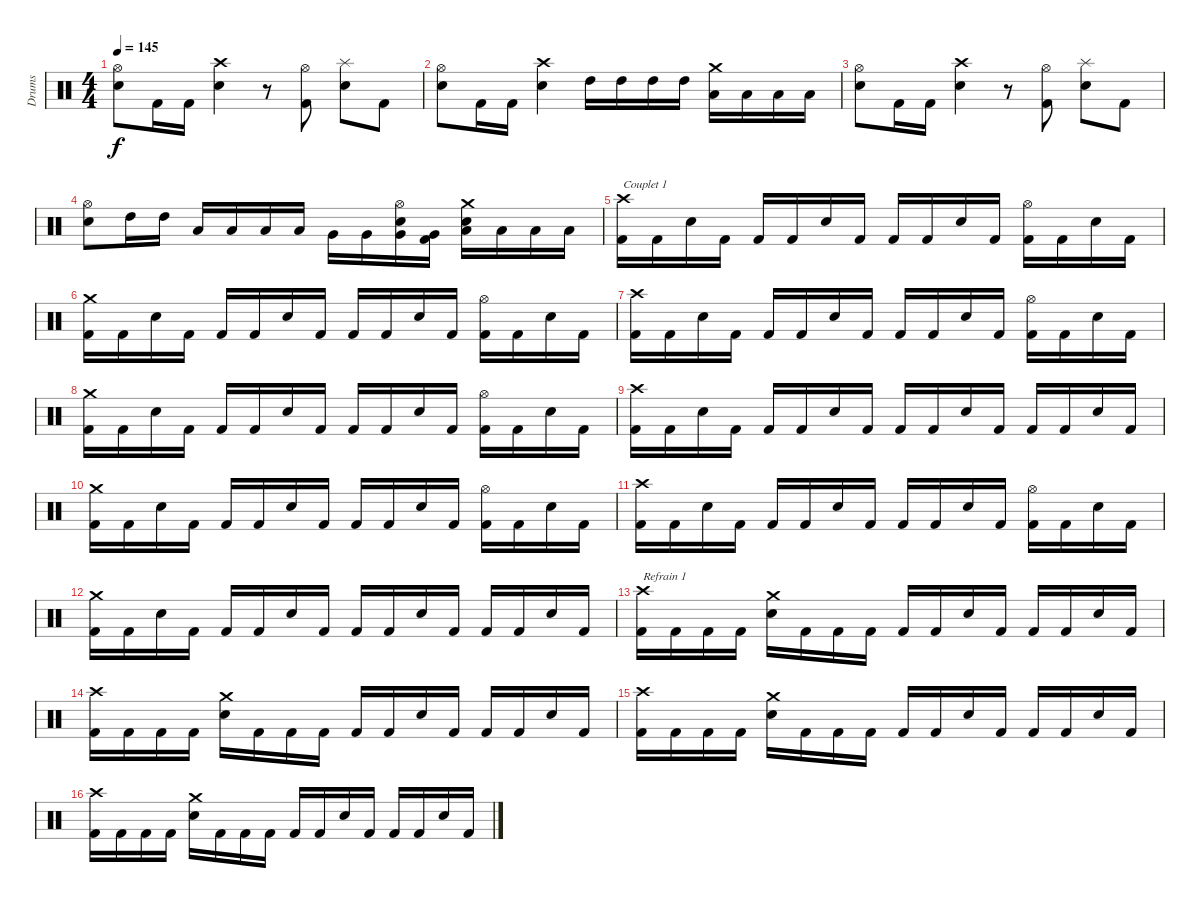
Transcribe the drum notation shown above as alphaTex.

\track ("Drums" "Drums") {instrument percussion}
\staff {score}
\articulation defaults
\ts (4 4)
\tempo 145
\clef neutral
\ks c
("Hi-Hat (open)" "Snare (hit) 2").8{dy f} "Kick (hit) 2".16 "Kick (hit) 2".16 ("Crash high (hit)" "Snare (hit) 2").4 r.8 ("Hi-Hat (open)" "Kick (hit) 2").8 ("Splash (hit)" "Snare (hit) 2").8 "Kick (hit) 2".8 |
("Hi-Hat (open)" "Snare (hit) 2").8 "Kick (hit) 2".16 "Kick (hit) 2".16 ("Crash high (hit)" "Snare (hit) 2").4 "High Tom (hit)".16 "High Tom (hit)".16 "High Tom (hit)".16 "High Tom (hit)".16 ("Low Tom (hit)" "Crash medium (hit)").16 "Low Tom (hit)".16 "Low Tom (hit)".16 "Low Tom (hit)".16 |
("Hi-Hat (open)" "Snare (hit) 2").8 "Kick (hit) 2".16 "Kick (hit) 2".16 ("Crash high (hit)" "Snare (hit) 2").4 r.8 ("Hi-Hat (open)" "Kick (hit) 2").8 ("Splash (hit)" "Snare (hit) 2").8 "Kick (hit) 2".8 |
("Hi-Hat (open)" "Snare (hit) 2").8 "High Tom (hit)".16 "High Tom (hit)".16 "Low Tom (hit)".16 "Low Tom (hit)".16 "Low Tom (hit)".16 "Low Tom (hit)".16 "Very Low Tom (hit)".16 "Very Low Tom (hit)".16 ("Very Low Tom (hit)" "Hi-Hat (open)" "Snare (hit) 2").16 ("Very Low Tom (hit)" "Kick (hit) 2").16 ("Low Floor Tom (hit)" "Crash medium (hit)" "Snare (hit) 2").16 "Low Floor Tom (hit)".16 "Low Floor Tom (hit)".16 "Low Floor Tom (hit)".16 |
("Crash high (hit)" "Kick (hit) 2").16{txt "Couplet 1"} "Kick (hit) 2".16 "Snare (hit) 2".16 "Kick (hit) 2".16 "Kick (hit) 2".16 "Kick (hit) 2".16 "Snare (hit) 2".16 "Kick (hit) 2".16 "Kick (hit) 2".16 "Kick (hit) 2".16 "Snare (hit) 2".16 "Kick (hit) 2".16 ("Hi-Hat (open)" "Kick (hit) 2").16 "Kick (hit) 2".16 "Snare (hit) 2".16 "Kick (hit) 2".16 |
("Crash medium (hit)" "Kick (hit) 2").16 "Kick (hit) 2".16 "Snare (hit) 2".16 "Kick (hit) 2".16 "Kick (hit) 2".16 "Kick (hit) 2".16 "Snare (hit) 2".16 "Kick (hit) 2".16 "Kick (hit) 2".16 "Kick (hit) 2".16 "Snare (hit) 2".16 "Kick (hit) 2".16 ("Hi-Hat (open)" "Kick (hit) 2").16 "Kick (hit) 2".16 "Snare (hit) 2".16 "Kick (hit) 2".16 |
("Crash high (hit)" "Kick (hit) 2").16 "Kick (hit) 2".16 "Snare (hit) 2".16 "Kick (hit) 2".16 "Kick (hit) 2".16 "Kick (hit) 2".16 "Snare (hit) 2".16 "Kick (hit) 2".16 "Kick (hit) 2".16 "Kick (hit) 2".16 "Snare (hit) 2".16 "Kick (hit) 2".16 ("Hi-Hat (open)" "Kick (hit) 2").16 "Kick (hit) 2".16 "Snare (hit) 2".16 "Kick (hit) 2".16 |
("Crash medium (hit)" "Kick (hit) 2").16 "Kick (hit) 2".16 "Snare (hit) 2".16 "Kick (hit) 2".16 "Kick (hit) 2".16 "Kick (hit) 2".16 "Snare (hit) 2".16 "Kick (hit) 2".16 "Kick (hit) 2".16 "Kick (hit) 2".16 "Snare (hit) 2".16 "Kick (hit) 2".16 ("Hi-Hat (open)" "Kick (hit) 2").16 "Kick (hit) 2".16 "Snare (hit) 2".16 "Kick (hit) 2".16 |
("Crash high (hit)" "Kick (hit) 2").16 "Kick (hit) 2".16 "Snare (hit) 2".16 "Kick (hit) 2".16 "Kick (hit) 2".16 "Kick (hit) 2".16 "Snare (hit) 2".16 "Kick (hit) 2".16 "Kick (hit) 2".16 "Kick (hit) 2".16 "Snare (hit) 2".16 "Kick (hit) 2".16 "Kick (hit) 2".16 "Kick (hit) 2".16 "Snare (hit) 2".16 "Kick (hit) 2".16 |
("Crash medium (hit)" "Kick (hit) 2").16 "Kick (hit) 2".16 "Snare (hit) 2".16 "Kick (hit) 2".16 "Kick (hit) 2".16 "Kick (hit) 2".16 "Snare (hit) 2".16 "Kick (hit) 2".16 "Kick (hit) 2".16 "Kick (hit) 2".16 "Snare (hit) 2".16 "Kick (hit) 2".16 ("Hi-Hat (open)" "Kick (hit) 2").16 "Kick (hit) 2".16 "Snare (hit) 2".16 "Kick (hit) 2".16 |
("Crash high (hit)" "Kick (hit) 2").16 "Kick (hit) 2".16 "Snare (hit) 2".16 "Kick (hit) 2".16 "Kick (hit) 2".16 "Kick (hit) 2".16 "Snare (hit) 2".16 "Kick (hit) 2".16 "Kick (hit) 2".16 "Kick (hit) 2".16 "Snare (hit) 2".16 "Kick (hit) 2".16 ("Hi-Hat (open)" "Kick (hit) 2").16 "Kick (hit) 2".16 "Snare (hit) 2".16 "Kick (hit) 2".16 |
("Crash medium (hit)" "Kick (hit) 2").16 "Kick (hit) 2".16 "Snare (hit) 2".16 "Kick (hit) 2".16 "Kick (hit) 2".16 "Kick (hit) 2".16 "Snare (hit) 2".16 "Kick (hit) 2".16 "Kick (hit) 2".16 "Kick (hit) 2".16 "Snare (hit) 2".16 "Kick (hit) 2".16 "Kick (hit) 2".16 "Kick (hit) 2".16 "Snare (hit) 2".16 "Kick (hit) 2".16 |
("Crash high (hit)" "Kick (hit) 2").16{txt "Refrain 1"} "Kick (hit) 2".16 "Kick (hit) 2".16 "Kick (hit) 2".16 ("Crash medium (hit)" "Snare (hit) 2").16 "Kick (hit) 2".16 "Kick (hit) 2".16 "Kick (hit) 2".16 "Kick (hit) 2".16 "Kick (hit) 2".16 "Snare (hit) 2".16 "Kick (hit) 2".16 "Kick (hit) 2".16 "Kick (hit) 2".16 "Snare (hit) 2".16 "Kick (hit) 2".16 |
("Crash high (hit)" "Kick (hit) 2").16 "Kick (hit) 2".16 "Kick (hit) 2".16 "Kick (hit) 2".16 ("Crash medium (hit)" "Snare (hit) 2").16 "Kick (hit) 2".16 "Kick (hit) 2".16 "Kick (hit) 2".16 "Kick (hit) 2".16 "Kick (hit) 2".16 "Snare (hit) 2".16 "Kick (hit) 2".16 "Kick (hit) 2".16 "Kick (hit) 2".16 "Snare (hit) 2".16 "Kick (hit) 2".16 |
("Crash high (hit)" "Kick (hit) 2").16 "Kick (hit) 2".16 "Kick (hit) 2".16 "Kick (hit) 2".16 ("Crash medium (hit)" "Snare (hit) 2").16 "Kick (hit) 2".16 "Kick (hit) 2".16 "Kick (hit) 2".16 "Kick (hit) 2".16 "Kick (hit) 2".16 "Snare (hit) 2".16 "Kick (hit) 2".16 "Kick (hit) 2".16 "Kick (hit) 2".16 "Snare (hit) 2".16 "Kick (hit) 2".16 |
("Crash high (hit)" "Kick (hit) 2").16 "Kick (hit) 2".16 "Kick (hit) 2".16 "Kick (hit) 2".16 ("Crash medium (hit)" "Snare (hit) 2").16 "Kick (hit) 2".16 "Kick (hit) 2".16 "Kick (hit) 2".16 "Kick (hit) 2".16 "Kick (hit) 2".16 "Snare (hit) 2".16 "Kick (hit) 2".16 "Kick (hit) 2".16 "Kick (hit) 2".16 "Snare (hit) 2".16 "Kick (hit) 2".16
